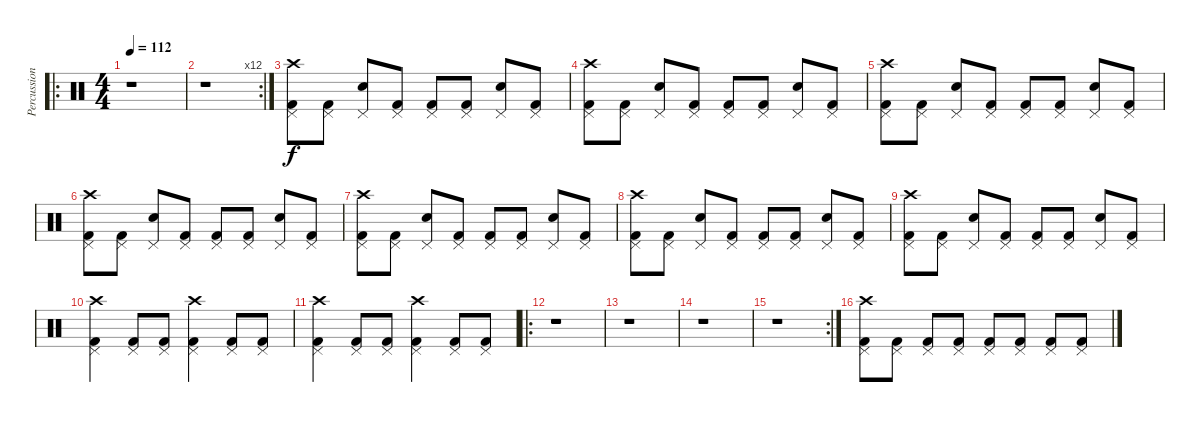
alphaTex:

\track ("Percussion" "Percussion") {instrument percussion}
\staff {score}
\articulation defaults
\ro
\ts (4 4)
\tempo 112
\clef neutral
\ks c
r.1{dy f} |
\rc 12
r.1 |
("Crash high (hit)" "Pedal Hi-Hat (hit)" "Kick (hit) 2").8 ("Pedal Hi-Hat (hit)" "Kick (hit) 2").8 ("Pedal Hi-Hat (hit)" "Snare (hit) 2").8 ("Pedal Hi-Hat (hit)" "Kick (hit) 2").8 ("Pedal Hi-Hat (hit)" "Kick (hit) 2").8 ("Pedal Hi-Hat (hit)" "Kick (hit) 2").8 ("Pedal Hi-Hat (hit)" "Snare (hit) 2").8 ("Pedal Hi-Hat (hit)" "Kick (hit) 2").8 |
("Crash high (hit)" "Pedal Hi-Hat (hit)" "Kick (hit) 2").8 ("Pedal Hi-Hat (hit)" "Kick (hit) 2").8 ("Pedal Hi-Hat (hit)" "Snare (hit) 2").8 ("Pedal Hi-Hat (hit)" "Kick (hit) 2").8 ("Pedal Hi-Hat (hit)" "Kick (hit) 2").8 ("Pedal Hi-Hat (hit)" "Kick (hit) 2").8 ("Pedal Hi-Hat (hit)" "Snare (hit) 2").8 ("Pedal Hi-Hat (hit)" "Kick (hit) 2").8 |
("Crash high (hit)" "Pedal Hi-Hat (hit)" "Kick (hit) 2").8 ("Pedal Hi-Hat (hit)" "Kick (hit) 2").8 ("Pedal Hi-Hat (hit)" "Snare (hit) 2").8 ("Pedal Hi-Hat (hit)" "Kick (hit) 2").8 ("Pedal Hi-Hat (hit)" "Kick (hit) 2").8 ("Pedal Hi-Hat (hit)" "Kick (hit) 2").8 ("Pedal Hi-Hat (hit)" "Snare (hit) 2").8 ("Pedal Hi-Hat (hit)" "Kick (hit) 2").8 |
("Crash high (hit)" "Pedal Hi-Hat (hit)" "Kick (hit) 2").8 ("Pedal Hi-Hat (hit)" "Kick (hit) 2").8 ("Pedal Hi-Hat (hit)" "Snare (hit) 2").8 ("Pedal Hi-Hat (hit)" "Kick (hit) 2").8 ("Pedal Hi-Hat (hit)" "Kick (hit) 2").8 ("Pedal Hi-Hat (hit)" "Kick (hit) 2").8 ("Pedal Hi-Hat (hit)" "Snare (hit) 2").8 ("Pedal Hi-Hat (hit)" "Kick (hit) 2").8 |
("Crash high (hit)" "Pedal Hi-Hat (hit)" "Kick (hit) 2").8 ("Pedal Hi-Hat (hit)" "Kick (hit) 2").8 ("Pedal Hi-Hat (hit)" "Snare (hit) 2").8 ("Pedal Hi-Hat (hit)" "Kick (hit) 2").8 ("Pedal Hi-Hat (hit)" "Kick (hit) 2").8 ("Pedal Hi-Hat (hit)" "Kick (hit) 2").8 ("Pedal Hi-Hat (hit)" "Snare (hit) 2").8 ("Pedal Hi-Hat (hit)" "Kick (hit) 2").8 |
("Crash high (hit)" "Pedal Hi-Hat (hit)" "Kick (hit) 2").8 ("Pedal Hi-Hat (hit)" "Kick (hit) 2").8 ("Pedal Hi-Hat (hit)" "Snare (hit) 2").8 ("Pedal Hi-Hat (hit)" "Kick (hit) 2").8 ("Pedal Hi-Hat (hit)" "Kick (hit) 2").8 ("Pedal Hi-Hat (hit)" "Kick (hit) 2").8 ("Pedal Hi-Hat (hit)" "Snare (hit) 2").8 ("Pedal Hi-Hat (hit)" "Kick (hit) 2").8 |
("Crash high (hit)" "Pedal Hi-Hat (hit)" "Kick (hit) 2").8 ("Pedal Hi-Hat (hit)" "Kick (hit) 2").8 ("Pedal Hi-Hat (hit)" "Snare (hit) 2").8 ("Pedal Hi-Hat (hit)" "Kick (hit) 2").8 ("Pedal Hi-Hat (hit)" "Kick (hit) 2").8 ("Pedal Hi-Hat (hit)" "Kick (hit) 2").8 ("Pedal Hi-Hat (hit)" "Snare (hit) 2").8 ("Pedal Hi-Hat (hit)" "Kick (hit) 2").8 |
("Crash high (hit)" "Pedal Hi-Hat (hit)" "Kick (hit) 2").4 ("Pedal Hi-Hat (hit)" "Kick (hit) 2").8 ("Pedal Hi-Hat (hit)" "Kick (hit) 2").8 ("Crash high (hit)" "Pedal Hi-Hat (hit)" "Kick (hit) 2").4 ("Pedal Hi-Hat (hit)" "Kick (hit) 2").8 ("Pedal Hi-Hat (hit)" "Kick (hit) 2").8 |
("Crash high (hit)" "Pedal Hi-Hat (hit)" "Kick (hit) 2").4 ("Pedal Hi-Hat (hit)" "Kick (hit) 2").8 ("Pedal Hi-Hat (hit)" "Kick (hit) 2").8 ("Crash high (hit)" "Pedal Hi-Hat (hit)" "Kick (hit) 2").4 ("Pedal Hi-Hat (hit)" "Kick (hit) 2").8 ("Pedal Hi-Hat (hit)" "Kick (hit) 2").8 |
\ro
r.1 |
r.1 |
r.1 |
\rc 2
r.1 |
("Crash high (hit)" "Pedal Hi-Hat (hit)" "Kick (hit) 2").8 ("Pedal Hi-Hat (hit)" "Kick (hit) 2").8 ("Pedal Hi-Hat (hit)" "Kick (hit) 2").8 ("Pedal Hi-Hat (hit)" "Kick (hit) 2").8 ("Pedal Hi-Hat (hit)" "Kick (hit) 2").8 ("Pedal Hi-Hat (hit)" "Kick (hit) 2").8 ("Pedal Hi-Hat (hit)" "Kick (hit) 2").8 ("Pedal Hi-Hat (hit)" "Kick (hit) 2").8
